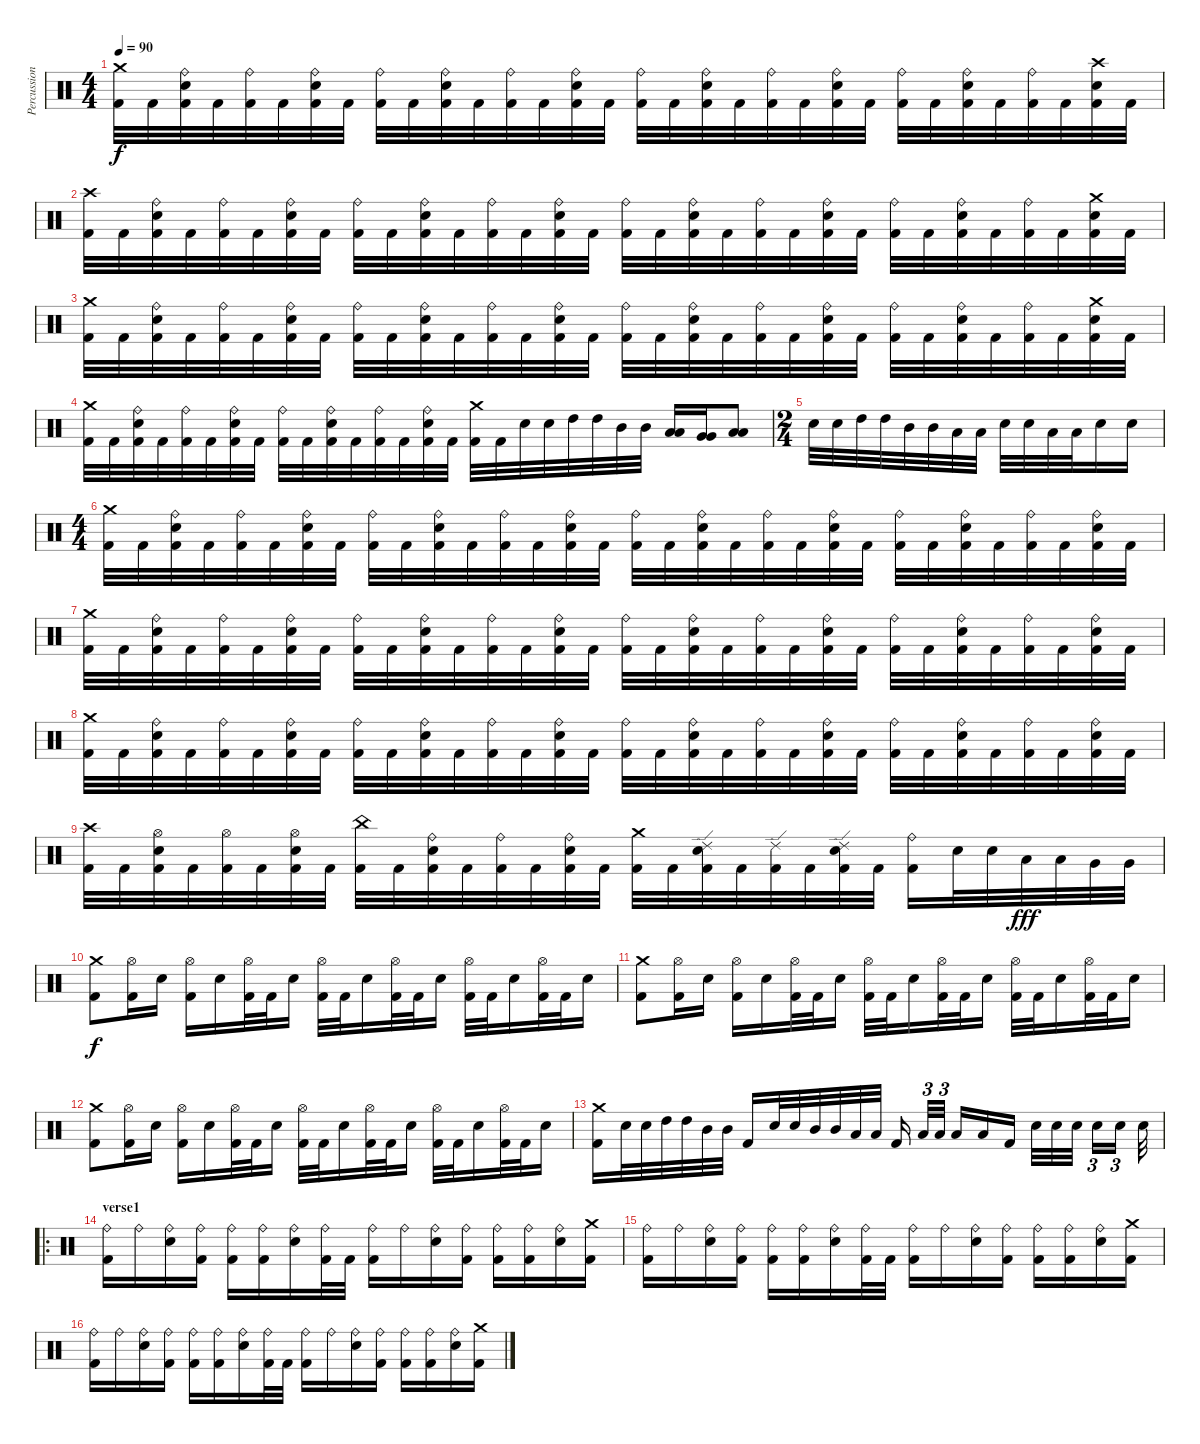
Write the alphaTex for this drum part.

\track ("Percussions" "Percussion") {instrument percussion}
\staff {score}
\articulation defaults
\ts (4 4)
\tempo 90
\clef neutral
\ks c
("Crash medium (hit)" "Kick (hit) 2").32{dy f} "Kick (hit) 2".32 ("Ride (bell)" "Electric Snare (hit)" "Kick (hit) 2").32 "Kick (hit) 2".32 ("Ride (bell)" "Kick (hit) 2").32 "Kick (hit) 2".32 ("Ride (bell)" "Electric Snare (hit)" "Kick (hit) 2").32 "Kick (hit) 2".32 ("Ride (bell)" "Kick (hit) 2").32 "Kick (hit) 2".32 ("Ride (bell)" "Electric Snare (hit)" "Kick (hit) 2").32 "Kick (hit) 2".32 ("Ride (bell)" "Kick (hit) 2").32 "Kick (hit) 2".32 ("Ride (bell)" "Electric Snare (hit)" "Kick (hit) 2").32 "Kick (hit) 2".32 ("Ride (bell)" "Kick (hit) 2").32 "Kick (hit) 2".32 ("Ride (bell)" "Electric Snare (hit)" "Kick (hit) 2").32 "Kick (hit) 2".32 ("Ride (bell)" "Kick (hit) 2").32 "Kick (hit) 2".32 ("Ride (bell)" "Electric Snare (hit)" "Kick (hit) 2").32 "Kick (hit) 2".32 ("Ride (bell)" "Kick (hit) 2").32 "Kick (hit) 2".32 ("Ride (bell)" "Electric Snare (hit)" "Kick (hit) 2").32 "Kick (hit) 2".32 ("Ride (bell)" "Kick (hit) 2").32 "Kick (hit) 2".32 ("Crash high (hit)" "Electric Snare (hit)" "Kick (hit) 2").32 "Kick (hit) 2".32 |
("Crash high (hit)" "Kick (hit) 2").32 "Kick (hit) 2".32 ("Ride (bell)" "Electric Snare (hit)" "Kick (hit) 2").32 "Kick (hit) 2".32 ("Ride (bell)" "Kick (hit) 2").32 "Kick (hit) 2".32 ("Ride (bell)" "Electric Snare (hit)" "Kick (hit) 2").32 "Kick (hit) 2".32 ("Ride (bell)" "Kick (hit) 2").32 "Kick (hit) 2".32 ("Ride (bell)" "Electric Snare (hit)" "Kick (hit) 2").32 "Kick (hit) 2".32 ("Ride (bell)" "Kick (hit) 2").32 "Kick (hit) 2".32 ("Ride (bell)" "Electric Snare (hit)" "Kick (hit) 2").32 "Kick (hit) 2".32 ("Ride (bell)" "Kick (hit) 2").32 "Kick (hit) 2".32 ("Ride (bell)" "Electric Snare (hit)" "Kick (hit) 2").32 "Kick (hit) 2".32 ("Ride (bell)" "Kick (hit) 2").32 "Kick (hit) 2".32 ("Ride (bell)" "Electric Snare (hit)" "Kick (hit) 2").32 "Kick (hit) 2".32 ("Ride (bell)" "Kick (hit) 2").32 "Kick (hit) 2".32 ("Ride (bell)" "Electric Snare (hit)" "Kick (hit) 2").32 "Kick (hit) 2".32 ("Ride (bell)" "Kick (hit) 2").32 "Kick (hit) 2".32 ("Crash medium (hit)" "Electric Snare (hit)" "Kick (hit) 2").32 "Kick (hit) 2".32 |
("Crash medium (hit)" "Kick (hit) 2").32 "Kick (hit) 2".32 ("Ride (bell)" "Electric Snare (hit)" "Kick (hit) 2").32 "Kick (hit) 2".32 ("Ride (bell)" "Kick (hit) 2").32 "Kick (hit) 2".32 ("Ride (bell)" "Electric Snare (hit)" "Kick (hit) 2").32 "Kick (hit) 2".32 ("Ride (bell)" "Kick (hit) 2").32 "Kick (hit) 2".32 ("Ride (bell)" "Electric Snare (hit)" "Kick (hit) 2").32 "Kick (hit) 2".32 ("Ride (bell)" "Kick (hit) 2").32 "Kick (hit) 2".32 ("Ride (bell)" "Electric Snare (hit)" "Kick (hit) 2").32 "Kick (hit) 2".32 ("Ride (bell)" "Kick (hit) 2").32 "Kick (hit) 2".32 ("Ride (bell)" "Electric Snare (hit)" "Kick (hit) 2").32 "Kick (hit) 2".32 ("Ride (bell)" "Kick (hit) 2").32 "Kick (hit) 2".32 ("Ride (bell)" "Electric Snare (hit)" "Kick (hit) 2").32 "Kick (hit) 2".32 ("Ride (bell)" "Kick (hit) 2").32 "Kick (hit) 2".32 ("Ride (bell)" "Electric Snare (hit)" "Kick (hit) 2").32 "Kick (hit) 2".32 ("Ride (bell)" "Kick (hit) 2").32 "Kick (hit) 2".32 ("Crash medium (hit)" "Electric Snare (hit)" "Kick (hit) 2").32 "Kick (hit) 2".32 |
("Crash medium (hit)" "Kick (hit) 2").32 "Kick (hit) 2".32 ("Ride (bell)" "Electric Snare (hit)" "Kick (hit) 2").32 "Kick (hit) 2".32 ("Ride (bell)" "Kick (hit) 2").32 "Kick (hit) 2".32 ("Ride (bell)" "Electric Snare (hit)" "Kick (hit) 2").32 "Kick (hit) 2".32 ("Ride (bell)" "Kick (hit) 2").32 "Kick (hit) 2".32 ("Ride (bell)" "Electric Snare (hit)" "Kick (hit) 2").32 "Kick (hit) 2".32 ("Ride (bell)" "Kick (hit) 2").32 "Kick (hit) 2".32 ("Ride (bell)" "Electric Snare (hit)" "Kick (hit) 2").32 "Kick (hit) 2".32 ("Crash medium (hit)" "Kick (hit) 2").32 "Kick (hit) 2".32 "Electric Snare (hit)".32 "Electric Snare (hit)".32 "High Tom (hit)".32 "High Tom (hit)".32 "Mid Tom (hit)".32 "Mid Tom (hit)".32 ("Low Tom (hit)" "Low Tom (hit)").16 ("Very Low Tom (hit)" "Very Low Tom (hit)").16 ("Low Tom (hit)" "Low Tom (hit)").8 |
\ts (2 4)
"Electric Snare (hit)".32 "Electric Snare (hit)".32 "High Tom (hit)".32 "High Tom (hit)".32 "Mid Tom (hit)".32 "Mid Tom (hit)".32 "Low Tom (hit)".32 "Low Tom (hit)".32 "Electric Snare (hit)".32 "Electric Snare (hit)".32 "Low Tom (hit)".32 "Low Tom (hit)".32 "Electric Snare (hit)".16 "Electric Snare (hit)".16 |
\ts (4 4)
("Crash medium (hit)" "Kick (hit) 2").32 "Kick (hit) 2".32 ("Ride (bell)" "Electric Snare (hit)" "Kick (hit) 2").32 "Kick (hit) 2".32 ("Ride (bell)" "Kick (hit) 2").32 "Kick (hit) 2".32 ("Ride (bell)" "Electric Snare (hit)" "Kick (hit) 2").32 "Kick (hit) 2".32 ("Ride (bell)" "Kick (hit) 2").32 "Kick (hit) 2".32 ("Ride (bell)" "Electric Snare (hit)" "Kick (hit) 2").32 "Kick (hit) 2".32 ("Ride (bell)" "Kick (hit) 2").32 "Kick (hit) 2".32 ("Ride (bell)" "Electric Snare (hit)" "Kick (hit) 2").32 "Kick (hit) 2".32 ("Ride (bell)" "Kick (hit) 2").32 "Kick (hit) 2".32 ("Ride (bell)" "Electric Snare (hit)" "Kick (hit) 2").32 "Kick (hit) 2".32 ("Ride (bell)" "Kick (hit) 2").32 "Kick (hit) 2".32 ("Ride (bell)" "Electric Snare (hit)" "Kick (hit) 2").32 "Kick (hit) 2".32 ("Ride (bell)" "Kick (hit) 2").32 "Kick (hit) 2".32 ("Ride (bell)" "Electric Snare (hit)" "Kick (hit) 2").32 "Kick (hit) 2".32 ("Ride (bell)" "Kick (hit) 2").32 "Kick (hit) 2".32 ("Ride (bell)" "Electric Snare (hit)" "Kick (hit) 2").32 "Kick (hit) 2".32 |
("Crash medium (hit)" "Kick (hit) 2").32 "Kick (hit) 2".32 ("Ride (bell)" "Electric Snare (hit)" "Kick (hit) 2").32 "Kick (hit) 2".32 ("Ride (bell)" "Kick (hit) 2").32 "Kick (hit) 2".32 ("Ride (bell)" "Electric Snare (hit)" "Kick (hit) 2").32 "Kick (hit) 2".32 ("Ride (bell)" "Kick (hit) 2").32 "Kick (hit) 2".32 ("Ride (bell)" "Electric Snare (hit)" "Kick (hit) 2").32 "Kick (hit) 2".32 ("Ride (bell)" "Kick (hit) 2").32 "Kick (hit) 2".32 ("Ride (bell)" "Electric Snare (hit)" "Kick (hit) 2").32 "Kick (hit) 2".32 ("Ride (bell)" "Kick (hit) 2").32 "Kick (hit) 2".32 ("Ride (bell)" "Electric Snare (hit)" "Kick (hit) 2").32 "Kick (hit) 2".32 ("Ride (bell)" "Kick (hit) 2").32 "Kick (hit) 2".32 ("Ride (bell)" "Electric Snare (hit)" "Kick (hit) 2").32 "Kick (hit) 2".32 ("Ride (bell)" "Kick (hit) 2").32 "Kick (hit) 2".32 ("Ride (bell)" "Electric Snare (hit)" "Kick (hit) 2").32 "Kick (hit) 2".32 ("Ride (bell)" "Kick (hit) 2").32 "Kick (hit) 2".32 ("Ride (bell)" "Electric Snare (hit)" "Kick (hit) 2").32 "Kick (hit) 2".32 |
("Crash medium (hit)" "Kick (hit) 2").32 "Kick (hit) 2".32 ("Ride (bell)" "Electric Snare (hit)" "Kick (hit) 2").32 "Kick (hit) 2".32 ("Ride (bell)" "Kick (hit) 2").32 "Kick (hit) 2".32 ("Ride (bell)" "Electric Snare (hit)" "Kick (hit) 2").32 "Kick (hit) 2".32 ("Ride (bell)" "Kick (hit) 2").32 "Kick (hit) 2".32 ("Ride (bell)" "Electric Snare (hit)" "Kick (hit) 2").32 "Kick (hit) 2".32 ("Ride (bell)" "Kick (hit) 2").32 "Kick (hit) 2".32 ("Ride (bell)" "Electric Snare (hit)" "Kick (hit) 2").32 "Kick (hit) 2".32 ("Ride (bell)" "Kick (hit) 2").32 "Kick (hit) 2".32 ("Ride (bell)" "Electric Snare (hit)" "Kick (hit) 2").32 "Kick (hit) 2".32 ("Ride (bell)" "Kick (hit) 2").32 "Kick (hit) 2".32 ("Ride (bell)" "Electric Snare (hit)" "Kick (hit) 2").32 "Kick (hit) 2".32 ("Ride (bell)" "Kick (hit) 2").32 "Kick (hit) 2".32 ("Ride (bell)" "Electric Snare (hit)" "Kick (hit) 2").32 "Kick (hit) 2".32 ("Ride (bell)" "Kick (hit) 2").32 "Kick (hit) 2".32 ("Ride (bell)" "Electric Snare (hit)" "Kick (hit) 2").32 "Kick (hit) 2".32 |
("Crash high (hit)" "Kick (hit) 2").32 "Kick (hit) 2".32 ("Hi-Hat (open)" "Electric Snare (hit)" "Kick (hit) 2").32 "Kick (hit) 2".32 ("Hi-Hat (open)" "Kick (hit) 2").32 "Kick (hit) 2".32 ("Hi-Hat (open)" "Electric Snare (hit)" "Kick (hit) 2").32 "Kick (hit) 2".32 ("China (hit)" "Kick (hit) 2").32 "Kick (hit) 2".32 ("Ride (bell)" "Electric Snare (hit)" "Kick (hit) 2").32 "Kick (hit) 2".32 ("Ride (bell)" "Kick (hit) 2").32 "Kick (hit) 2".32 ("Ride (bell)" "Electric Snare (hit)" "Kick (hit) 2").32 "Kick (hit) 2".32 ("Crash medium (hit)" "Kick (hit) 2").32 "Kick (hit) 2".32 ("Ride (edge) 2" "Electric Snare (hit)" "Kick (hit) 2").32 "Kick (hit) 2".32 ("Ride (edge) 2" "Kick (hit) 2").32 "Kick (hit) 2".32 ("Ride (edge) 2" "Electric Snare (hit)" "Kick (hit) 2").32 "Kick (hit) 2".32 ("Ride (bell)" "Kick (hit) 2").16 "Electric Snare (hit)".32 "Electric Snare (hit)".32 "Low Tom (hit)".32{dy fff} "Low Tom (hit)".32 "Very Low Tom (hit)".32 "Very Low Tom (hit)".32 |
("Crash medium (hit)" "Kick (hit) 2").8{dy f} ("Hi-Hat (open)" "Kick (hit) 2").16 "Electric Snare (hit)".16 ("Hi-Hat (open)" "Kick (hit) 2").16 "Electric Snare (hit)".16 ("Hi-Hat (open)" "Kick (hit) 2").32 "Kick (hit) 2".32 "Electric Snare (hit)".16 ("Hi-Hat (open)" "Kick (hit) 2").32 "Kick (hit) 2".32 "Electric Snare (hit)".16 ("Hi-Hat (open)" "Kick (hit) 2").32 "Kick (hit) 2".32 "Electric Snare (hit)".16 ("Hi-Hat (open)" "Kick (hit) 2").32 "Kick (hit) 2".32 "Electric Snare (hit)".16 ("Hi-Hat (open)" "Kick (hit) 2").32 "Kick (hit) 2".32 "Electric Snare (hit)".16 |
("Crash medium (hit)" "Kick (hit) 2").8 ("Hi-Hat (open)" "Kick (hit) 2").16 "Electric Snare (hit)".16 ("Hi-Hat (open)" "Kick (hit) 2").16 "Electric Snare (hit)".16 ("Hi-Hat (open)" "Kick (hit) 2").32 "Kick (hit) 2".32 "Electric Snare (hit)".16 ("Hi-Hat (open)" "Kick (hit) 2").32 "Kick (hit) 2".32 "Electric Snare (hit)".16 ("Hi-Hat (open)" "Kick (hit) 2").32 "Kick (hit) 2".32 "Electric Snare (hit)".16 ("Hi-Hat (open)" "Kick (hit) 2").32 "Kick (hit) 2".32 "Electric Snare (hit)".16 ("Hi-Hat (open)" "Kick (hit) 2").32 "Kick (hit) 2".32 "Electric Snare (hit)".16 |
("Crash medium (hit)" "Kick (hit) 2").8 ("Hi-Hat (open)" "Kick (hit) 2").16 "Electric Snare (hit)".16 ("Hi-Hat (open)" "Kick (hit) 2").16 "Electric Snare (hit)".16 ("Hi-Hat (open)" "Kick (hit) 2").32 "Kick (hit) 2".32 "Electric Snare (hit)".16 ("Hi-Hat (open)" "Kick (hit) 2").32 "Kick (hit) 2".32 "Electric Snare (hit)".16 ("Hi-Hat (open)" "Kick (hit) 2").32 "Kick (hit) 2".32 "Electric Snare (hit)".16 ("Hi-Hat (open)" "Kick (hit) 2").32 "Kick (hit) 2".32 "Electric Snare (hit)".16 ("Hi-Hat (open)" "Kick (hit) 2").32 "Kick (hit) 2".32 "Electric Snare (hit)".16 |
("Crash medium (hit)" "Kick (hit) 2").16 "Electric Snare (hit)".32 "Electric Snare (hit)".32 "High Tom (hit)".32 "High Tom (hit)".32 "Mid Tom (hit)".32 "Mid Tom (hit)".32 "Kick (hit) 2".16 "Electric Snare (hit)".32 "Electric Snare (hit)".32 "Mid Tom (hit)".32 "Mid Tom (hit)".32 "Low Tom (hit)".32 "Low Tom (hit)".32 "Kick (hit) 2".16 "Low Tom (hit)".32{tu (3 2)} "Low Tom (hit)".32{tu (3 2)} "Low Tom (hit)".16 "Low Tom (hit)".16 "Kick (hit) 2".16 "Electric Snare (hit)".32 "Electric Snare (hit)".32 "Electric Snare (hit)".32 "Electric Snare (hit)".16{tu (3 2)} "Electric Snare (hit)".16{tu (3 2)} "Electric Snare (hit)".32 |
\ro
\section ("" "verse1")
("Ride (bell)" "Kick (hit) 2").16 "Ride (bell)".16 ("Ride (bell)" "Electric Snare (hit)").16 ("Ride (bell)" "Kick (hit) 2").16 ("Ride (bell)" "Kick (hit) 2").16 ("Ride (bell)" "Kick (hit) 2").16 ("Ride (bell)" "Electric Snare (hit)").16 ("Ride (bell)" "Kick (hit) 2").32 "Kick (hit) 2".32 ("Ride (bell)" "Kick (hit) 2").16 "Ride (bell)".16 ("Ride (bell)" "Electric Snare (hit)").16 ("Ride (bell)" "Kick (hit) 2").16 ("Ride (bell)" "Kick (hit) 2").16 ("Ride (bell)" "Kick (hit) 2").16 ("Ride (bell)" "Electric Snare (hit)").16 ("Crash medium (hit)" "Kick (hit) 2").16 |
("Ride (bell)" "Kick (hit) 2").16 "Ride (bell)".16 ("Ride (bell)" "Electric Snare (hit)").16 ("Ride (bell)" "Kick (hit) 2").16 ("Ride (bell)" "Kick (hit) 2").16 ("Ride (bell)" "Kick (hit) 2").16 ("Ride (bell)" "Electric Snare (hit)").16 ("Ride (bell)" "Kick (hit) 2").32 "Kick (hit) 2".32 ("Ride (bell)" "Kick (hit) 2").16 "Ride (bell)".16 ("Ride (bell)" "Electric Snare (hit)").16 ("Ride (bell)" "Kick (hit) 2").16 ("Ride (bell)" "Kick (hit) 2").16 ("Ride (bell)" "Kick (hit) 2").16 ("Ride (bell)" "Electric Snare (hit)").16 ("Crash medium (hit)" "Kick (hit) 2").16 |
("Ride (bell)" "Kick (hit) 2").16 "Ride (bell)".16 ("Ride (bell)" "Electric Snare (hit)").16 ("Ride (bell)" "Kick (hit) 2").16 ("Ride (bell)" "Kick (hit) 2").16 ("Ride (bell)" "Kick (hit) 2").16 ("Ride (bell)" "Electric Snare (hit)").16 ("Ride (bell)" "Kick (hit) 2").32 "Kick (hit) 2".32 ("Ride (bell)" "Kick (hit) 2").16 "Ride (bell)".16 ("Ride (bell)" "Electric Snare (hit)").16 ("Ride (bell)" "Kick (hit) 2").16 ("Ride (bell)" "Kick (hit) 2").16 ("Ride (bell)" "Kick (hit) 2").16 ("Ride (bell)" "Electric Snare (hit)").16 ("Crash medium (hit)" "Kick (hit) 2").16
